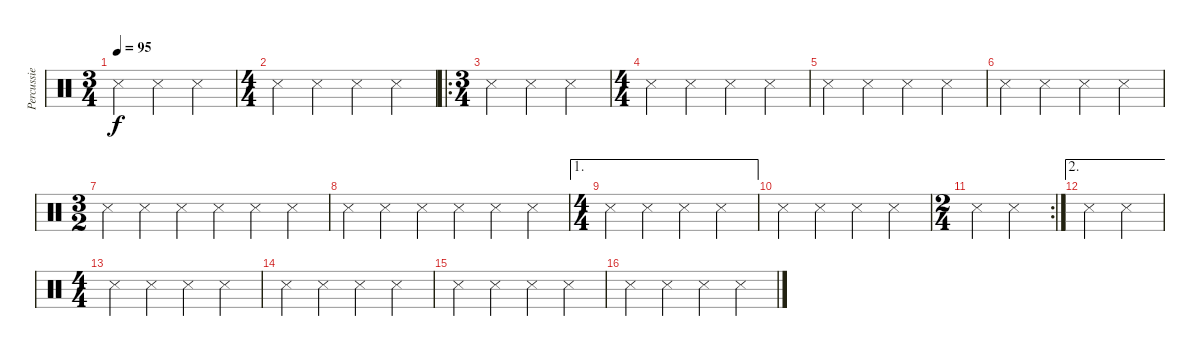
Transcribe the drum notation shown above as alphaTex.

\track ("Percussie" "Percussie") {instrument percussion}
\staff {score}
\articulation defaults
\ts (3 4)
\tempo 95
\clef neutral
\ks c "Snare (side stick) 3".4{dy f} "Snare (side stick) 3".4 "Snare (side stick) 3".4
|
\ts (4 4)
"Snare (side stick) 3".4 "Snare (side stick) 3".4 "Snare (side stick) 3".4 "Snare (side stick) 3".4 |
\ro
\ts (3 4)
"Snare (side stick) 3".4 "Snare (side stick) 3".4 "Snare (side stick) 3".4 |
\ts (4 4)
"Snare (side stick) 3".4 "Snare (side stick) 3".4 "Snare (side stick) 3".4 "Snare (side stick) 3".4 |
"Snare (side stick) 3".4 "Snare (side stick) 3".4 "Snare (side stick) 3".4 "Snare (side stick) 3".4 |
"Snare (side stick) 3".4 "Snare (side stick) 3".4 "Snare (side stick) 3".4 "Snare (side stick) 3".4 |
\ts (3 2)
"Snare (side stick) 3".4 "Snare (side stick) 3".4 "Snare (side stick) 3".4 "Snare (side stick) 3".4 "Snare (side stick) 3".4 "Snare (side stick) 3".4 |
"Snare (side stick) 3".4 "Snare (side stick) 3".4 "Snare (side stick) 3".4 "Snare (side stick) 3".4 "Snare (side stick) 3".4 "Snare (side stick) 3".4 |
\ae 1
\ts (4 4)
"Snare (side stick) 3".4 "Snare (side stick) 3".4 "Snare (side stick) 3".4 "Snare (side stick) 3".4 |
"Snare (side stick) 3".4 "Snare (side stick) 3".4 "Snare (side stick) 3".4 "Snare (side stick) 3".4 |
\rc 2
\ts (2 4)
"Snare (side stick) 3".4 "Snare (side stick) 3".4 |
\ae 2 "Snare (side stick) 3".4 "Snare (side stick) 3".4
|
\ts (4 4)
"Snare (side stick) 3".4 "Snare (side stick) 3".4 "Snare (side stick) 3".4 "Snare (side stick) 3".4 |
"Snare (side stick) 3".4 "Snare (side stick) 3".4 "Snare (side stick) 3".4 "Snare (side stick) 3".4 |
"Snare (side stick) 3".4 "Snare (side stick) 3".4 "Snare (side stick) 3".4 "Snare (side stick) 3".4 |
"Snare (side stick) 3".4 "Snare (side stick) 3".4 "Snare (side stick) 3".4 "Snare (side stick) 3".4
